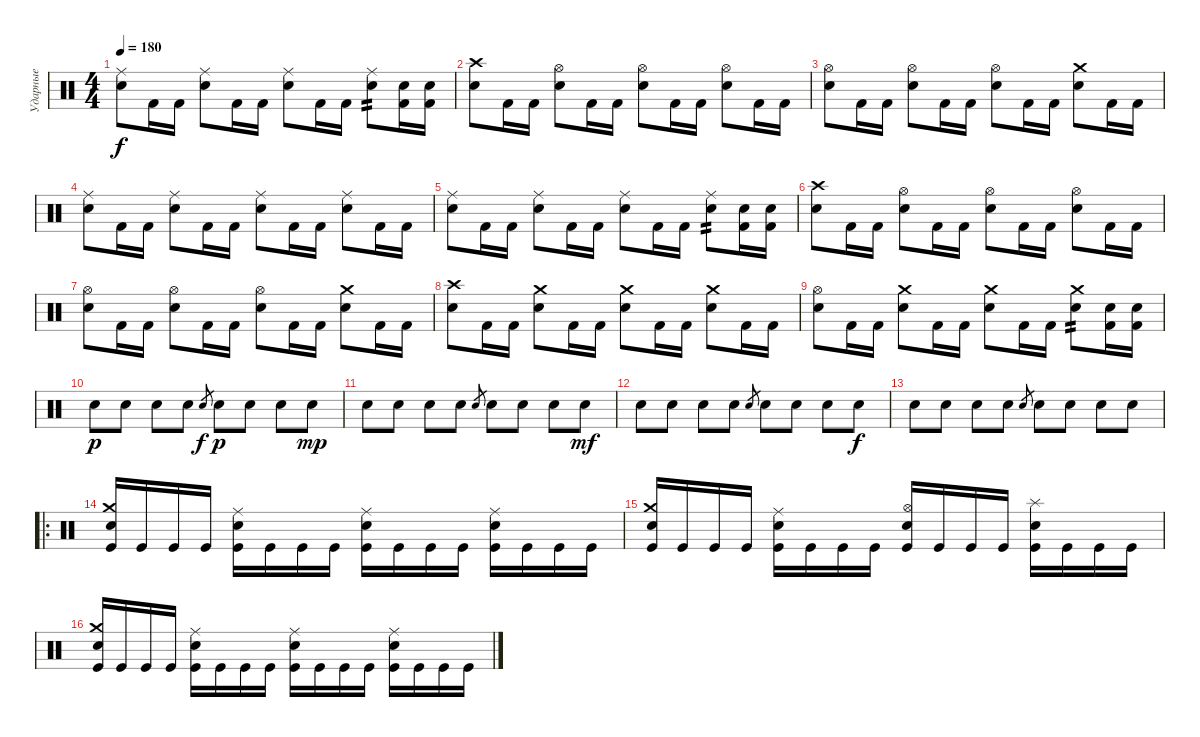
\track ("Ударные" "Ударные") {instrument percussion}
\staff {score}
\articulation defaults
\ts (4 4)
\tempo 180
\clef neutral
\ks c
("Ride (middle)" "Electric Snare (hit)").8{dy f} "Kick (hit) 2".16 "Kick (hit) 2".16 ("Ride (middle)" "Electric Snare (hit)").8 "Kick (hit) 2".16 "Kick (hit) 2".16 ("Ride (middle)" "Electric Snare (hit)").8 "Kick (hit) 2".16 "Kick (hit) 2".16 ("Ride (middle)" "Electric Snare (hit)").8{tp 2} ("Electric Snare (hit)" "Kick (hit) 2").16 ("Electric Snare (hit)" "Kick (hit) 2").16 |
("Crash high (hit)" "Electric Snare (hit)").8 "Kick (hit) 2".16 "Kick (hit) 2".16 ("Hi-Hat (open)" "Electric Snare (hit)").8 "Kick (hit) 2".16 "Kick (hit) 2".16 ("Hi-Hat (open)" "Electric Snare (hit)").8 "Kick (hit) 2".16 "Kick (hit) 2".16 ("Hi-Hat (open)" "Electric Snare (hit)").8 "Kick (hit) 2".16 "Kick (hit) 2".16 |
("Hi-Hat (open)" "Electric Snare (hit)").8 "Kick (hit) 2".16 "Kick (hit) 2".16 ("Hi-Hat (open)" "Electric Snare (hit)").8 "Kick (hit) 2".16 "Kick (hit) 2".16 ("Hi-Hat (open)" "Electric Snare (hit)").8 "Kick (hit) 2".16 "Kick (hit) 2".16 ("Crash medium (hit)" "Electric Snare (hit)").8 "Kick (hit) 2".16 "Kick (hit) 2".16 |
("Ride (middle)" "Electric Snare (hit)").8 "Kick (hit) 2".16 "Kick (hit) 2".16 ("Ride (middle)" "Electric Snare (hit)").8 "Kick (hit) 2".16 "Kick (hit) 2".16 ("Ride (middle)" "Electric Snare (hit)").8 "Kick (hit) 2".16 "Kick (hit) 2".16 ("Ride (middle)" "Electric Snare (hit)").8 "Kick (hit) 2".16 "Kick (hit) 2".16 |
("Ride (middle)" "Electric Snare (hit)").8 "Kick (hit) 2".16 "Kick (hit) 2".16 ("Ride (middle)" "Electric Snare (hit)").8 "Kick (hit) 2".16 "Kick (hit) 2".16 ("Ride (middle)" "Electric Snare (hit)").8 "Kick (hit) 2".16 "Kick (hit) 2".16 ("Ride (middle)" "Electric Snare (hit)").8{tp 2} ("Electric Snare (hit)" "Kick (hit) 2").16 ("Electric Snare (hit)" "Kick (hit) 2").16 |
("Crash high (hit)" "Electric Snare (hit)").8 "Kick (hit) 2".16 "Kick (hit) 2".16 ("Hi-Hat (open)" "Electric Snare (hit)").8 "Kick (hit) 2".16 "Kick (hit) 2".16 ("Hi-Hat (open)" "Electric Snare (hit)").8 "Kick (hit) 2".16 "Kick (hit) 2".16 ("Hi-Hat (open)" "Electric Snare (hit)").8 "Kick (hit) 2".16 "Kick (hit) 2".16 |
("Hi-Hat (open)" "Electric Snare (hit)").8 "Kick (hit) 2".16 "Kick (hit) 2".16 ("Hi-Hat (open)" "Electric Snare (hit)").8 "Kick (hit) 2".16 "Kick (hit) 2".16 ("Hi-Hat (open)" "Electric Snare (hit)").8 "Kick (hit) 2".16 "Kick (hit) 2".16 ("Crash medium (hit)" "Electric Snare (hit)").8 "Kick (hit) 2".16 "Kick (hit) 2".16 |
("Crash high (hit)" "Electric Snare (hit)").8 "Kick (hit) 2".16 "Kick (hit) 2".16 ("Crash medium (hit)" "Electric Snare (hit)").8 "Kick (hit) 2".16 "Kick (hit) 2".16 ("Crash medium (hit)" "Electric Snare (hit)").8 "Kick (hit) 2".16 "Kick (hit) 2".16 ("Crash medium (hit)" "Electric Snare (hit)").8 "Kick (hit) 2".16 "Kick (hit) 2".16 |
("Hi-Hat (open)" "Electric Snare (hit)").8 "Kick (hit) 2".16 "Kick (hit) 2".16 ("Crash medium (hit)" "Electric Snare (hit)").8 "Kick (hit) 2".16 "Kick (hit) 2".16 ("Crash medium (hit)" "Electric Snare (hit)").8 "Kick (hit) 2".16 "Kick (hit) 2".16 ("Crash medium (hit)" "Electric Snare (hit)").8{tp 2} ("Electric Snare (hit)" "Kick (hit) 2").16 ("Electric Snare (hit)" "Kick (hit) 2").16 |
"Electric Snare (hit)".8{dy p} "Electric Snare (hit)".8 "Electric Snare (hit)".8 "Electric Snare (hit)".8 "Electric Snare (hit)".8{gr dy f} "Electric Snare (hit)".8{dy p} "Electric Snare (hit)".8 "Electric Snare (hit)".8 "Electric Snare (hit)".8{dy mp} |
"Electric Snare (hit)".8 "Electric Snare (hit)".8 "Electric Snare (hit)".8 "Electric Snare (hit)".8 "Electric Snare (hit)".8{gr} "Electric Snare (hit)".8 "Electric Snare (hit)".8 "Electric Snare (hit)".8 "Electric Snare (hit)".8{dy mf} |
"Electric Snare (hit)".8 "Electric Snare (hit)".8 "Electric Snare (hit)".8 "Electric Snare (hit)".8 "Electric Snare (hit)".8{gr} "Electric Snare (hit)".8 "Electric Snare (hit)".8 "Electric Snare (hit)".8 "Electric Snare (hit)".8{dy f} |
"Electric Snare (hit)".8 "Electric Snare (hit)".8 "Electric Snare (hit)".8 "Electric Snare (hit)".8 "Electric Snare (hit)".8{gr} "Electric Snare (hit)".8 "Electric Snare (hit)".8 "Electric Snare (hit)".8 "Electric Snare (hit)".8 |
\ro
("Crash medium (hit)" "Electric Snare (hit)" "Kick (hit)").16 "Kick (hit)".16 "Kick (hit)".16 "Kick (hit)".16 ("Ride (middle)" "Electric Snare (hit)" "Kick (hit)").16 "Kick (hit)".16 "Kick (hit)".16 "Kick (hit)".16 ("Ride (middle)" "Electric Snare (hit)" "Kick (hit)").16 "Kick (hit)".16 "Kick (hit)".16 "Kick (hit)".16 ("Ride (middle)" "Electric Snare (hit)" "Kick (hit)").16 "Kick (hit)".16 "Kick (hit)".16 "Kick (hit)".16 |
("Crash medium (hit)" "Electric Snare (hit)" "Kick (hit)").16 "Kick (hit)".16 "Kick (hit)".16 "Kick (hit)".16 ("Ride (middle)" "Electric Snare (hit)" "Kick (hit)").16 "Kick (hit)".16 "Kick (hit)".16 "Kick (hit)".16 ("Hi-Hat (open)" "Electric Snare (hit)" "Kick (hit)").16 "Kick (hit)".16 "Kick (hit)".16 "Kick (hit)".16 ("Splash (hit)" "Electric Snare (hit)" "Kick (hit)").16 "Kick (hit)".16 "Kick (hit)".16 "Kick (hit)".16 |
("Crash medium (hit)" "Electric Snare (hit)" "Kick (hit)").16 "Kick (hit)".16 "Kick (hit)".16 "Kick (hit)".16 ("Ride (middle)" "Electric Snare (hit)" "Kick (hit)").16 "Kick (hit)".16 "Kick (hit)".16 "Kick (hit)".16 ("Ride (middle)" "Electric Snare (hit)" "Kick (hit)").16 "Kick (hit)".16 "Kick (hit)".16 "Kick (hit)".16 ("Ride (middle)" "Electric Snare (hit)" "Kick (hit)").16 "Kick (hit)".16 "Kick (hit)".16 "Kick (hit)".16
